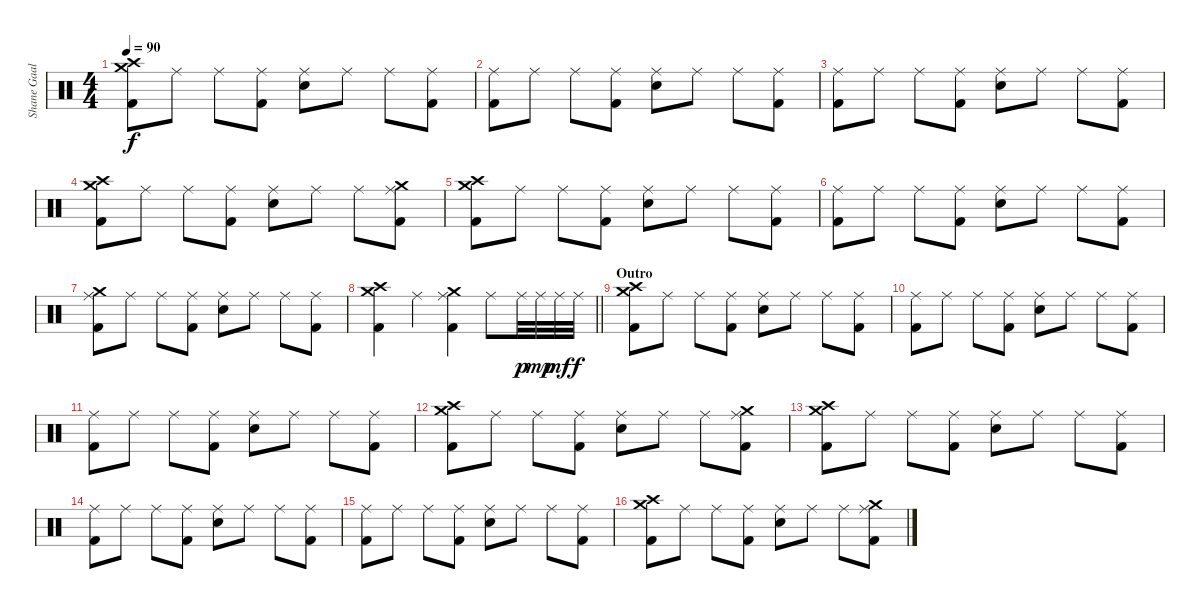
\track ("Shane Gaalaas" "Shane Gaal") {instrument percussion}
\staff {score}
\articulation defaults
\ts (4 4)
\tempo 90
\clef neutral
\ks c
("Crash high (hit)" "Crash medium (hit)" "Kick (hit) 2").8{dy f} "Ride (middle)".8 "Ride (middle)".8 ("Ride (middle)" "Kick (hit) 2").8 ("Ride (middle)" "Electric Snare (hit)").8 "Ride (middle)".8 "Ride (middle)".8 ("Ride (middle)" "Kick (hit) 2").8 |
("Ride (middle)" "Kick (hit) 2").8 "Ride (middle)".8 "Ride (middle)".8 ("Ride (middle)" "Kick (hit) 2").8 ("Ride (middle)" "Electric Snare (hit)").8 "Ride (middle)".8 "Ride (middle)".8 ("Ride (middle)" "Kick (hit) 2").8 |
("Ride (middle)" "Kick (hit) 2").8 "Ride (middle)".8 "Ride (middle)".8 ("Ride (middle)" "Kick (hit) 2").8 ("Ride (middle)" "Electric Snare (hit)").8 "Ride (middle)".8 "Ride (middle)".8 ("Ride (middle)" "Kick (hit) 2").8 |
("Crash high (hit)" "Crash medium (hit)" "Kick (hit) 2").8 "Ride (middle)".8 "Ride (middle)".8 ("Ride (middle)" "Kick (hit) 2").8 ("Ride (middle)" "Electric Snare (hit)").8 "Ride (middle)".8 "Ride (middle)".8 ("Crash medium (hit)" "Ride (middle)" "Kick (hit) 2").8 |
("Crash high (hit)" "Crash medium (hit)" "Kick (hit) 2").8 "Ride (middle)".8 "Ride (middle)".8 ("Ride (middle)" "Kick (hit) 2").8 ("Ride (middle)" "Electric Snare (hit)").8 "Ride (middle)".8 "Ride (middle)".8 ("Ride (middle)" "Kick (hit) 2").8 |
("Ride (middle)" "Kick (hit) 2").8 "Ride (middle)".8 "Ride (middle)".8 ("Ride (middle)" "Kick (hit) 2").8 ("Ride (middle)" "Electric Snare (hit)").8 "Ride (middle)".8 "Ride (middle)".8 ("Ride (middle)" "Kick (hit) 2").8 |
("Crash medium (hit)" "Ride (middle)" "Kick (hit) 2").8 "Ride (middle)".8 "Ride (middle)".8 ("Ride (middle)" "Kick (hit) 2").8 ("Ride (middle)" "Electric Snare (hit)").8 "Ride (middle)".8 "Ride (middle)".8 ("Ride (middle)" "Kick (hit) 2").8 |
\barLineRight lightlight
("Crash high (hit)" "Crash medium (hit)" "Kick (hit) 2").4 "Ride (middle)".4 ("Crash medium (hit)" "Ride (middle)" "Kick (hit) 2").4 "Ride (middle)".8 "Ride (middle)".32{dy p} "Ride (middle)".32{dy mp} "Ride (middle)".32{dy mf} "Ride (middle)".32{dy f} |
\section ("" "Outro")
("Crash high (hit)" "Crash medium (hit)" "Kick (hit) 2").8 "Ride (middle)".8 "Ride (middle)".8 ("Ride (middle)" "Kick (hit) 2").8 ("Ride (middle)" "Electric Snare (hit)").8 "Ride (middle)".8 "Ride (middle)".8 ("Ride (middle)" "Kick (hit) 2").8 |
("Ride (middle)" "Kick (hit) 2").8 "Ride (middle)".8 "Ride (middle)".8 ("Ride (middle)" "Kick (hit) 2").8 ("Ride (middle)" "Electric Snare (hit)").8 "Ride (middle)".8 "Ride (middle)".8 ("Ride (middle)" "Kick (hit) 2").8 |
("Ride (middle)" "Kick (hit) 2").8 "Ride (middle)".8 "Ride (middle)".8 ("Ride (middle)" "Kick (hit) 2").8 ("Ride (middle)" "Electric Snare (hit)").8 "Ride (middle)".8 "Ride (middle)".8 ("Ride (middle)" "Kick (hit) 2").8 |
("Crash high (hit)" "Crash medium (hit)" "Kick (hit) 2").8 "Ride (middle)".8 "Ride (middle)".8 ("Ride (middle)" "Kick (hit) 2").8 ("Ride (middle)" "Electric Snare (hit)").8 "Ride (middle)".8 "Ride (middle)".8 ("Crash medium (hit)" "Ride (middle)" "Kick (hit) 2").8 |
("Crash high (hit)" "Crash medium (hit)" "Kick (hit) 2").8 "Ride (middle)".8 "Ride (middle)".8 ("Ride (middle)" "Kick (hit) 2").8 ("Ride (middle)" "Electric Snare (hit)").8 "Ride (middle)".8 "Ride (middle)".8 ("Ride (middle)" "Kick (hit) 2").8 |
("Ride (middle)" "Kick (hit) 2").8 "Ride (middle)".8 "Ride (middle)".8 ("Ride (middle)" "Kick (hit) 2").8 ("Ride (middle)" "Electric Snare (hit)").8 "Ride (middle)".8 "Ride (middle)".8 ("Ride (middle)" "Kick (hit) 2").8 |
("Ride (middle)" "Kick (hit) 2").8 "Ride (middle)".8 "Ride (middle)".8 ("Ride (middle)" "Kick (hit) 2").8 ("Ride (middle)" "Electric Snare (hit)").8 "Ride (middle)".8 "Ride (middle)".8 ("Ride (middle)" "Kick (hit) 2").8 |
("Crash high (hit)" "Crash medium (hit)" "Kick (hit) 2").8 "Ride (middle)".8 "Ride (middle)".8 ("Ride (middle)" "Kick (hit) 2").8 ("Ride (middle)" "Electric Snare (hit)").8 "Ride (middle)".8 "Ride (middle)".8 ("Crash medium (hit)" "Ride (middle)" "Kick (hit) 2").8
